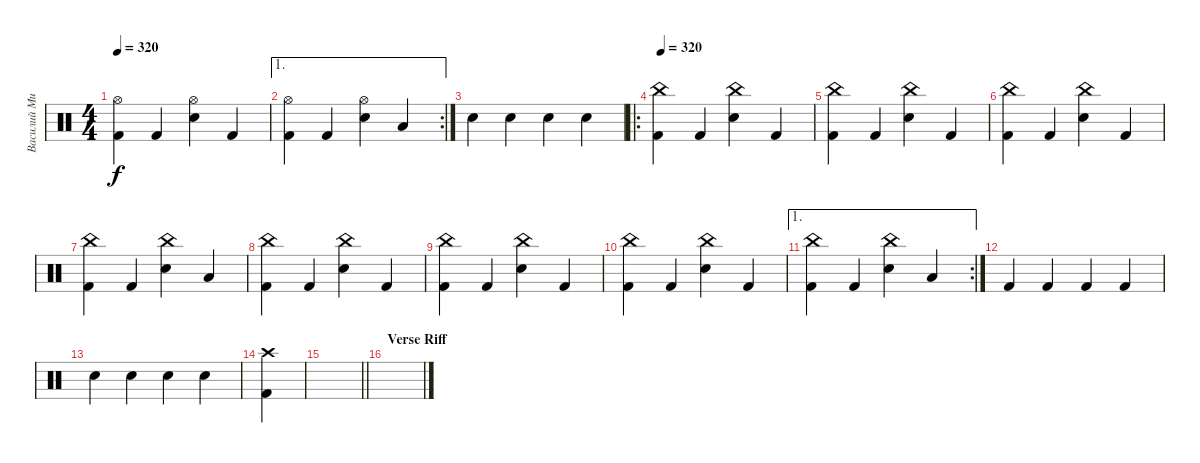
\track ("Василий Михалыч-ударные" "Василий Ми") {instrument percussion}
\staff {score}
\articulation defaults
\ts (4 4)
\tempo 320
\clef neutral
\ks c
("Kick (hit) 2" "Hi-Hat (open)").4{dy f} "Kick (hit) 2".4 ("Snare (hit) 2" "Hi-Hat (open)").4 "Kick (hit) 2".4 |
\ae 1
\rc 2
("Kick (hit) 2" "Hi-Hat (open)").4 "Kick (hit) 2".4 ("Snare (hit) 2" "Hi-Hat (open)").4 "Low Tom (hit)".4 |
"Snare (hit) 2".4 "Snare (hit) 2".4 "Snare (hit) 2".4 "Snare (hit) 2".4 |
\ro
\tempo 320
("Kick (hit) 2" "China (hit)").4 "Kick (hit) 2".4 ("Snare (hit) 2" "China (hit)").4 "Kick (hit) 2".4 |
("Kick (hit) 2" "China (hit)").4 "Kick (hit) 2".4 ("Snare (hit) 2" "China (hit)").4 "Kick (hit) 2".4 |
("Kick (hit) 2" "China (hit)").4 "Kick (hit) 2".4 ("Snare (hit) 2" "China (hit)").4 "Kick (hit) 2".4 |
("Kick (hit) 2" "China (hit)").4 "Kick (hit) 2".4 ("Snare (hit) 2" "China (hit)").4 "Low Tom (hit)".4 |
("Kick (hit) 2" "China (hit)").4 "Kick (hit) 2".4 ("Snare (hit) 2" "China (hit)").4 "Kick (hit) 2".4 |
("Kick (hit) 2" "China (hit)").4 "Kick (hit) 2".4 ("Snare (hit) 2" "China (hit)").4 "Kick (hit) 2".4 |
("Kick (hit) 2" "China (hit)").4 "Kick (hit) 2".4 ("Snare (hit) 2" "China (hit)").4 "Kick (hit) 2".4 |
\ae 1
\rc 2
("Kick (hit) 2" "China (hit)").4 "Kick (hit) 2".4 ("Snare (hit) 2" "China (hit)").4 "Low Tom (hit)".4 |
"Kick (hit) 2".4 "Kick (hit) 2".4 "Kick (hit) 2".4 "Kick (hit) 2".4 |
"Snare (hit) 2".4 "Snare (hit) 2".4 "Snare (hit) 2".4 "Snare (hit) 2".4 |
("Kick (hit) 2" "Crash high (hit)").4 |
\barLineRight lightlight
|
\section ("" "Verse Riff")
